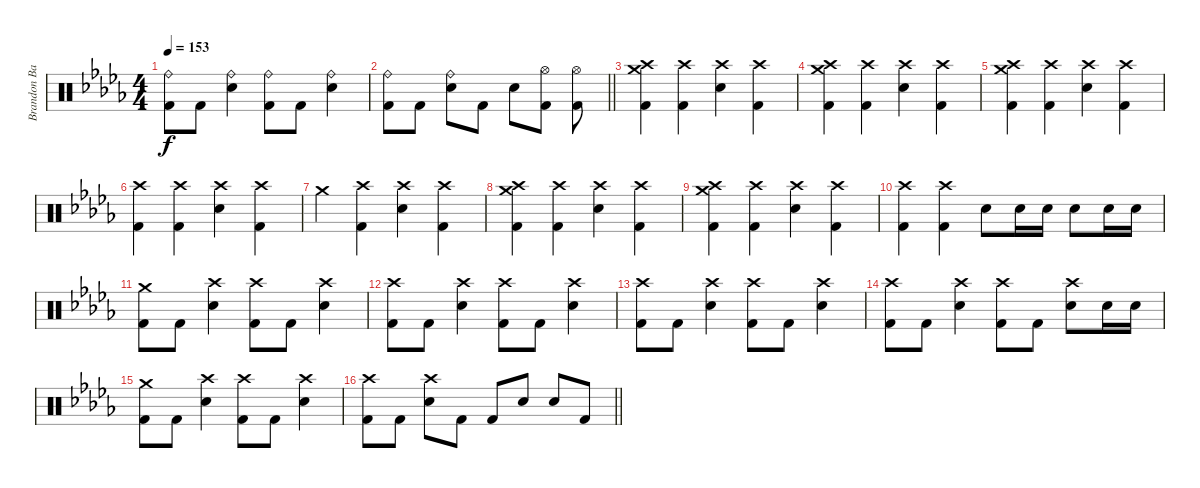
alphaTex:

\track ("Brandon Barnes" "Brandon Ba") {instrument percussion}
\staff {score}
\articulation defaults
\ts (4 4)
\tempo 153
\clef neutral
\ks db
("Ride (bell)" "Kick (hit) 2").8{dy f} "Kick (hit) 2".8 ("Ride (bell)" "Snare (hit) 2").4 ("Ride (bell)" "Kick (hit) 2").8 "Kick (hit) 2".8 ("Ride (bell)" "Snare (hit) 2").4 |
\barLineRight lightlight
("Ride (bell)" "Kick (hit) 2").8 "Kick (hit) 2".8 ("Ride (bell)" "Snare (hit) 2").8 "Kick (hit) 2".8 "Snare (hit) 2".8 ("Hi-Hat (open)" "Kick (hit) 2").8 ("Hi-Hat (open)" "Kick (hit) 2").8 |
("Crash high (hit)" "Crash medium (hit)" "Kick (hit) 2").4 ("Crash high (hit)" "Kick (hit) 2").4 ("Crash high (hit)" "Snare (hit) 2").4 ("Crash high (hit)" "Kick (hit) 2").4 |
("Crash high (hit)" "Crash medium (hit)" "Kick (hit) 2").4 ("Crash high (hit)" "Kick (hit) 2").4 ("Crash high (hit)" "Snare (hit) 2").4 ("Crash high (hit)" "Kick (hit) 2").4 |
("Crash high (hit)" "Crash medium (hit)" "Kick (hit) 2").4 ("Crash high (hit)" "Kick (hit) 2").4 ("Crash high (hit)" "Snare (hit) 2").4 ("Crash high (hit)" "Kick (hit) 2").4 |
("Crash high (hit)" "Kick (hit) 2").4 ("Crash high (hit)" "Kick (hit) 2").4 ("Crash high (hit)" "Snare (hit) 2").4 ("Crash high (hit)" "Kick (hit) 2").4 |
"Crash medium (hit)".4 ("Crash high (hit)" "Kick (hit) 2").4 ("Crash high (hit)" "Snare (hit) 2").4 ("Crash high (hit)" "Kick (hit) 2").4 |
("Crash high (hit)" "Crash medium (hit)" "Kick (hit) 2").4 ("Crash high (hit)" "Kick (hit) 2").4 ("Crash high (hit)" "Snare (hit) 2").4 ("Crash high (hit)" "Kick (hit) 2").4 |
("Crash high (hit)" "Crash medium (hit)" "Kick (hit) 2").4 ("Crash high (hit)" "Kick (hit) 2").4 ("Crash high (hit)" "Snare (hit) 2").4 ("Crash high (hit)" "Kick (hit) 2").4 |
("Crash high (hit)" "Kick (hit) 2").4 ("Crash high (hit)" "Kick (hit) 2").4 "Snare (hit) 2".8 "Snare (hit) 2".16 "Snare (hit) 2".16 "Snare (hit) 2".8 "Snare (hit) 2".16 "Snare (hit) 2".16 |
("Crash medium (hit)" "Kick (hit) 2").8 "Kick (hit) 2".8 ("Crash high (hit)" "Snare (hit) 2").4 ("Crash high (hit)" "Kick (hit) 2").8 "Kick (hit) 2".8 ("Crash high (hit)" "Snare (hit) 2").4 |
("Crash high (hit)" "Kick (hit) 2").8 "Kick (hit) 2".8 ("Crash high (hit)" "Snare (hit) 2").4 ("Crash high (hit)" "Kick (hit) 2").8 "Kick (hit) 2".8 ("Crash high (hit)" "Snare (hit) 2").4 |
("Crash high (hit)" "Kick (hit) 2").8 "Kick (hit) 2".8 ("Crash high (hit)" "Snare (hit) 2").4 ("Crash high (hit)" "Kick (hit) 2").8 "Kick (hit) 2".8 ("Crash high (hit)" "Snare (hit) 2").4 |
("Crash high (hit)" "Kick (hit) 2").8 "Kick (hit) 2".8 ("Crash high (hit)" "Snare (hit) 2").4 ("Crash high (hit)" "Kick (hit) 2").8 "Kick (hit) 2".8 ("Crash high (hit)" "Snare (hit) 2").8 "Snare (hit) 2".16 "Snare (hit) 2".16 |
("Crash medium (hit)" "Kick (hit) 2").8 "Kick (hit) 2".8 ("Crash high (hit)" "Snare (hit) 2").4 ("Crash high (hit)" "Kick (hit) 2").8 "Kick (hit) 2".8 ("Crash high (hit)" "Snare (hit) 2").4 |
\barLineRight lightlight
("Crash high (hit)" "Kick (hit) 2").8 "Kick (hit) 2".8 ("Crash high (hit)" "Snare (hit) 2").8 "Kick (hit) 2".8 "Kick (hit) 2".8 "Snare (hit) 2".8 "Snare (hit) 2".8 "Kick (hit) 2".8
